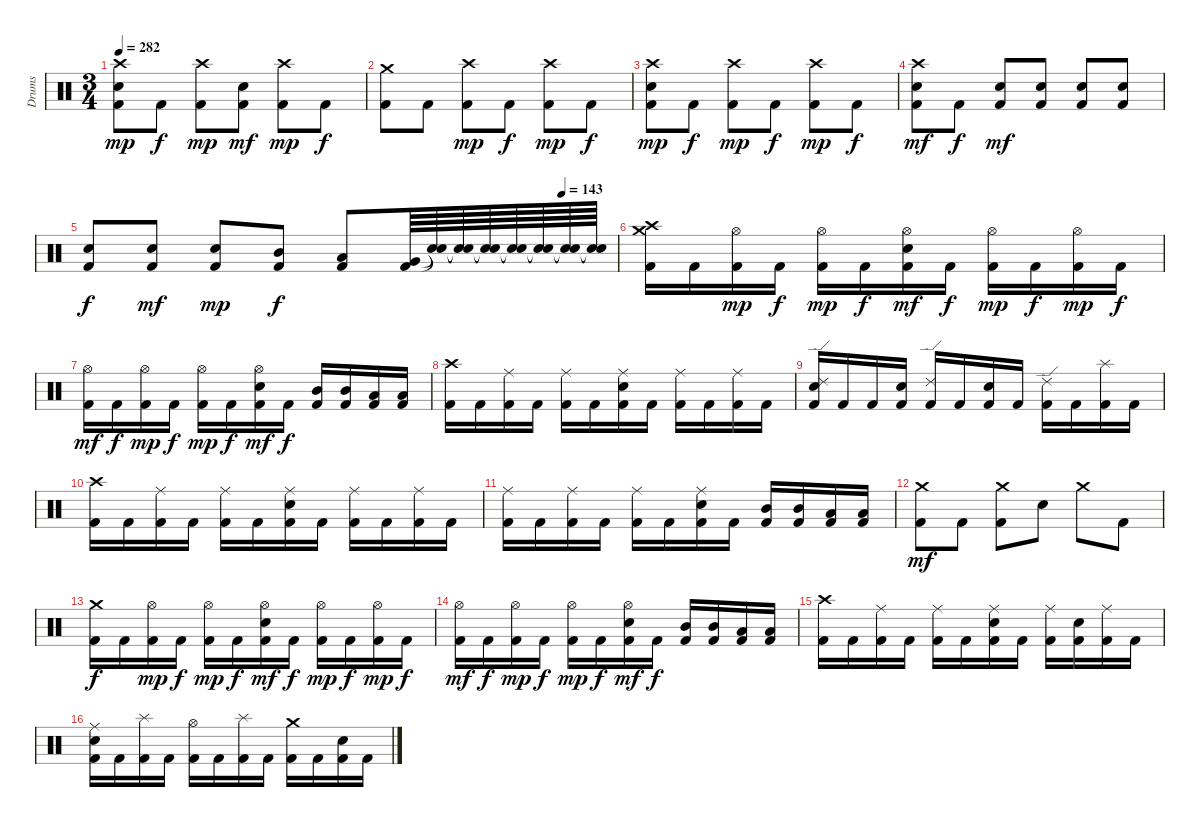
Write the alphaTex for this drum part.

\track ("Drums" "Drums") {instrument percussion}
\staff {score}
\articulation defaults
\ts (3 4)
\tempo 282
\clef neutral
\ks c
("Crash high (hit)" "Electric Snare (hit)" "Kick (hit) 2").8{dy mp} "Kick (hit) 2".8{dy f} ("Crash high (hit)" "Kick (hit) 2").8{dy mp} ("Electric Snare (hit)" "Kick (hit) 2").8{dy mf} ("Crash high (hit)" "Kick (hit) 2").8{dy mp} "Kick (hit) 2".8{dy f} |
("Crash medium (hit)" "Kick (hit) 2").8 "Kick (hit) 2".8 ("Crash high (hit)" "Kick (hit) 2").8{dy mp} "Kick (hit) 2".8{dy f} ("Crash high (hit)" "Kick (hit) 2").8{dy mp} "Kick (hit) 2".8{dy f} |
("Crash high (hit)" "Electric Snare (hit)" "Kick (hit) 2").8{dy mp} "Kick (hit) 2".8{dy f} ("Crash high (hit)" "Kick (hit) 2").8{dy mp} "Kick (hit) 2".8{dy f} ("Crash high (hit)" "Kick (hit) 2").8{dy mp} "Kick (hit) 2".8{dy f} |
("Crash high (hit)" "Electric Snare (hit)" "Kick (hit) 2").8{dy mf} "Kick (hit) 2".8{dy f} ("Electric Snare (hit)" "Kick (hit) 2").8{dy mf} ("Electric Snare (hit)" "Kick (hit) 2").8 ("Electric Snare (hit)" "Kick (hit) 2").8 ("Electric Snare (hit)" "Kick (hit) 2").8 |
\tempo (143 0.8958333333333334)
("Electric Snare (hit)" "Kick (hit) 2").8{dy f} ("Electric Snare (hit)" "Kick (hit) 2").8{dy mf} ("Electric Snare (hit)" "Kick (hit) 2").8{dy mp} ("Mid Tom (hit)" "Kick (hit) 2").8{dy f} ("Low Tom (hit)" "Kick (hit) 2").8 ("Very Low Tom (hit)" "Kick (hit) 2").64 ("Snare (hit)"{t} "Snare (hit)"{t}).64 ("Snare (hit)"{t} "Snare (hit)"{t}).64 ("Snare (hit)"{t} "Snare (hit)"{t}).64 ("Snare (hit)"{t} "Snare (hit)"{t}).64 ("Snare (hit)"{t} "Snare (hit)"{t}).64 ("Snare (hit)"{t} "Snare (hit)"{t}).64 ("Snare (hit)"{t} "Snare (hit)"{t}).64 |
("Crash medium (hit)" "Crash high (hit)" "Kick (hit) 2").16 "Kick (hit) 2".16 ("Hi-Hat (open)" "Kick (hit) 2").16{dy mp} "Kick (hit) 2".16{dy f} ("Hi-Hat (open)" "Kick (hit) 2").16{dy mp} "Kick (hit) 2".16{dy f} ("Hi-Hat (open)" "Electric Snare (hit)" "Kick (hit) 2").16{dy mf} "Kick (hit) 2".16{dy f} ("Hi-Hat (open)" "Kick (hit) 2").16{dy mp} "Kick (hit) 2".16{dy f} ("Hi-Hat (open)" "Kick (hit) 2").16{dy mp} "Kick (hit) 2".16{dy f} |
("Hi-Hat (open)" "Kick (hit) 2").16{dy mf} "Kick (hit) 2".16{dy f} ("Hi-Hat (open)" "Kick (hit) 2").16{dy mp} "Kick (hit) 2".16{dy f} ("Hi-Hat (open)" "Kick (hit) 2").16{dy mp} "Kick (hit) 2".16{dy f} ("Hi-Hat (open)" "Electric Snare (hit)" "Kick (hit) 2").16{dy mf} "Kick (hit) 2".16{dy f} ("Mid Tom (hit)" "Kick (hit) 2").16 ("Mid Tom (hit)" "Kick (hit) 2").16 ("Low Tom (hit)" "Kick (hit) 2").16 ("Low Tom (hit)" "Kick (hit) 2").16 |
("Crash high (hit)" "Kick (hit) 2").16 "Kick (hit) 2".16 ("Ride (middle)" "Kick (hit) 2").16 "Kick (hit) 2".16 ("Ride (middle)" "Kick (hit) 2").16 "Kick (hit) 2".16 ("Ride (middle)" "Electric Snare (hit)" "Kick (hit) 2").16 "Kick (hit) 2".16 ("Ride (middle)" "Kick (hit) 2").16 "Kick (hit) 2".16 ("Ride (middle)" "Kick (hit) 2").16 "Kick (hit) 2".16 |
("Ride (edge) 2" "Electric Snare (hit)" "Kick (hit) 2").16 "Kick (hit) 2".16 "Kick (hit) 2".16 ("Electric Snare (hit)" "Kick (hit) 2").16 ("Ride (edge) 2" "Kick (hit) 2").16 "Kick (hit) 2".16 ("Electric Snare (hit)" "Kick (hit) 2").16 "Kick (hit) 2".16 ("Ride (edge) 2" "Kick (hit) 2").16 "Kick (hit) 2".16 ("Splash (hit)" "Kick (hit) 2").16 "Kick (hit) 2".16 |
("Crash high (hit)" "Kick (hit) 2").16 "Kick (hit) 2".16 ("Ride (middle)" "Kick (hit) 2").16 "Kick (hit) 2".16 ("Ride (middle)" "Kick (hit) 2").16 "Kick (hit) 2".16 ("Ride (middle)" "Electric Snare (hit)" "Kick (hit) 2").16 "Kick (hit) 2".16 ("Ride (middle)" "Kick (hit) 2").16 "Kick (hit) 2".16 ("Ride (middle)" "Kick (hit) 2").16 "Kick (hit) 2".16 |
("Ride (middle)" "Kick (hit) 2").16 "Kick (hit) 2".16 ("Ride (middle)" "Kick (hit) 2").16 "Kick (hit) 2".16 ("Ride (middle)" "Kick (hit) 2").16 "Kick (hit) 2".16 ("Ride (middle)" "Electric Snare (hit)" "Kick (hit) 2").16 "Kick (hit) 2".16 ("Mid Tom (hit)" "Kick (hit) 2").16 ("Mid Tom (hit)" "Kick (hit) 2").16 ("Low Tom (hit)" "Kick (hit) 2").16 ("Low Tom (hit)" "Kick (hit) 2").16 |
("Crash medium (hit)" "Kick (hit) 2").8{dy mf} "Kick (hit) 2".8 ("Crash medium (hit)" "Kick (hit) 2").8 "Electric Snare (hit)".8 "Crash medium (hit)".8 "Kick (hit) 2".8 |
("Crash medium (hit)" "Kick (hit) 2").16{dy f} "Kick (hit) 2".16 ("Hi-Hat (open)" "Kick (hit) 2").16{dy mp} "Kick (hit) 2".16{dy f} ("Hi-Hat (open)" "Kick (hit) 2").16{dy mp} "Kick (hit) 2".16{dy f} ("Hi-Hat (open)" "Electric Snare (hit)" "Kick (hit) 2").16{dy mf} "Kick (hit) 2".16{dy f} ("Hi-Hat (open)" "Kick (hit) 2").16{dy mp} "Kick (hit) 2".16{dy f} ("Hi-Hat (open)" "Kick (hit) 2").16{dy mp} "Kick (hit) 2".16{dy f} |
("Hi-Hat (open)" "Kick (hit) 2").16{dy mf} "Kick (hit) 2".16{dy f} ("Hi-Hat (open)" "Kick (hit) 2").16{dy mp} "Kick (hit) 2".16{dy f} ("Hi-Hat (open)" "Kick (hit) 2").16{dy mp} "Kick (hit) 2".16{dy f} ("Hi-Hat (open)" "Electric Snare (hit)" "Kick (hit) 2").16{dy mf} "Kick (hit) 2".16{dy f} ("Mid Tom (hit)" "Kick (hit) 2").16 ("Mid Tom (hit)" "Kick (hit) 2").16 ("Low Tom (hit)" "Kick (hit) 2").16 ("Low Tom (hit)" "Kick (hit) 2").16 |
("Crash high (hit)" "Kick (hit) 2").16 "Kick (hit) 2".16 ("Ride (middle)" "Kick (hit) 2").16 "Kick (hit) 2".16 ("Ride (middle)" "Kick (hit) 2").16 "Kick (hit) 2".16 ("Ride (middle)" "Electric Snare (hit)" "Kick (hit) 2").16 "Kick (hit) 2".16 ("Ride (middle)" "Kick (hit) 2").16 ("Electric Snare (hit)" "Kick (hit) 2").16 ("Ride (middle)" "Kick (hit) 2").16 "Kick (hit) 2".16 |
("Ride (middle)" "Electric Snare (hit)" "Kick (hit) 2").16 "Kick (hit) 2".16 ("Splash (hit)" "Kick (hit) 2").16 "Kick (hit) 2".16 ("Hi-Hat (open)" "Kick (hit) 2").16 "Kick (hit) 2".16 ("Splash (hit)" "Kick (hit) 2").16 "Kick (hit) 2".16 ("Crash medium (hit)" "Kick (hit) 2").16 "Kick (hit) 2".16 ("Electric Snare (hit)" "Kick (hit) 2").16 "Kick (hit) 2".16
